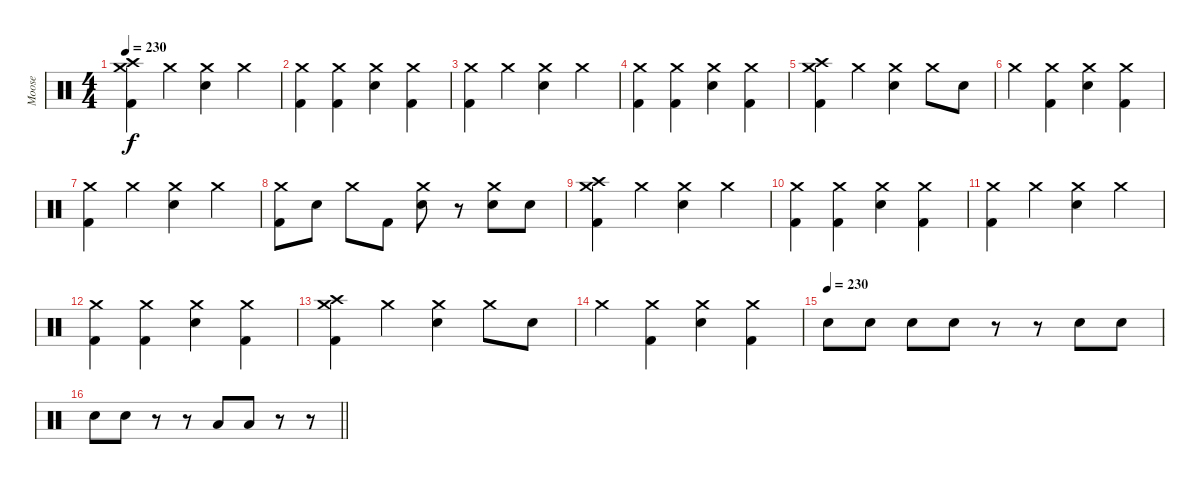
\track ("Moose" "Moose") {instrument percussion}
\staff {score}
\articulation defaults
\ts (4 4)
\tempo 230
\clef neutral
\ks c
("Crash high (hit)" "Crash medium (hit)" "Kick (hit) 2").4{dy f} "Crash medium (hit)".4 ("Crash medium (hit)" "Snare (hit) 2").4 "Crash medium (hit)".4 |
("Crash medium (hit)" "Kick (hit) 2").4 ("Crash medium (hit)" "Kick (hit) 2").4 ("Crash medium (hit)" "Snare (hit) 2").4 ("Crash medium (hit)" "Kick (hit) 2").4 |
("Crash medium (hit)" "Kick (hit) 2").4 "Crash medium (hit)".4 ("Crash medium (hit)" "Snare (hit) 2").4 "Crash medium (hit)".4 |
("Crash medium (hit)" "Kick (hit) 2").4 ("Crash medium (hit)" "Kick (hit) 2").4 ("Crash medium (hit)" "Snare (hit) 2").4 ("Crash medium (hit)" "Kick (hit) 2").4 |
("Crash high (hit)" "Crash medium (hit)" "Kick (hit) 2").4 "Crash medium (hit)".4 ("Crash medium (hit)" "Snare (hit) 2").4 "Crash medium (hit)".8 "Snare (hit) 2".8 |
"Crash medium (hit)".4 ("Crash medium (hit)" "Kick (hit) 2").4 ("Crash medium (hit)" "Snare (hit) 2").4 ("Crash medium (hit)" "Kick (hit) 2").4 |
("Crash medium (hit)" "Kick (hit) 2").4 "Crash medium (hit)".4 ("Crash medium (hit)" "Snare (hit) 2").4 "Crash medium (hit)".4 |
("Crash medium (hit)" "Kick (hit) 2").8 "Snare (hit) 2".8 "Crash medium (hit)".8 "Kick (hit) 2".8 ("Crash medium (hit)" "Snare (hit) 2").8 r.8 ("Crash medium (hit)" "Snare (hit) 2").8 "Snare (hit) 2".8 |
("Crash high (hit)" "Crash medium (hit)" "Kick (hit) 2").4 "Crash medium (hit)".4 ("Crash medium (hit)" "Snare (hit) 2").4 "Crash medium (hit)".4 |
("Crash medium (hit)" "Kick (hit) 2").4 ("Crash medium (hit)" "Kick (hit) 2").4 ("Crash medium (hit)" "Snare (hit) 2").4 ("Crash medium (hit)" "Kick (hit) 2").4 |
("Crash medium (hit)" "Kick (hit) 2").4 "Crash medium (hit)".4 ("Crash medium (hit)" "Snare (hit) 2").4 "Crash medium (hit)".4 |
("Crash medium (hit)" "Kick (hit) 2").4 ("Crash medium (hit)" "Kick (hit) 2").4 ("Crash medium (hit)" "Snare (hit) 2").4 ("Crash medium (hit)" "Kick (hit) 2").4 |
("Crash high (hit)" "Crash medium (hit)" "Kick (hit) 2").4 "Crash medium (hit)".4 ("Crash medium (hit)" "Snare (hit) 2").4 "Crash medium (hit)".8 "Snare (hit) 2".8 |
"Crash medium (hit)".4 ("Crash medium (hit)" "Kick (hit) 2").4 ("Crash medium (hit)" "Snare (hit) 2").4 ("Crash medium (hit)" "Kick (hit) 2").4 |
\tempo (230)
"Snare (hit) 2".8 "Snare (hit) 2".8 "Snare (hit) 2".8 "Snare (hit) 2".8 r.8 r.8 "Snare (hit) 2".8 "Snare (hit) 2".8 |
\barLineRight lightlight "Snare (hit) 2".8 "Snare (hit) 2".8
r.8 r.8 "Low Tom (hit)".8 "Low Tom (hit)".8 r.8 r.8
